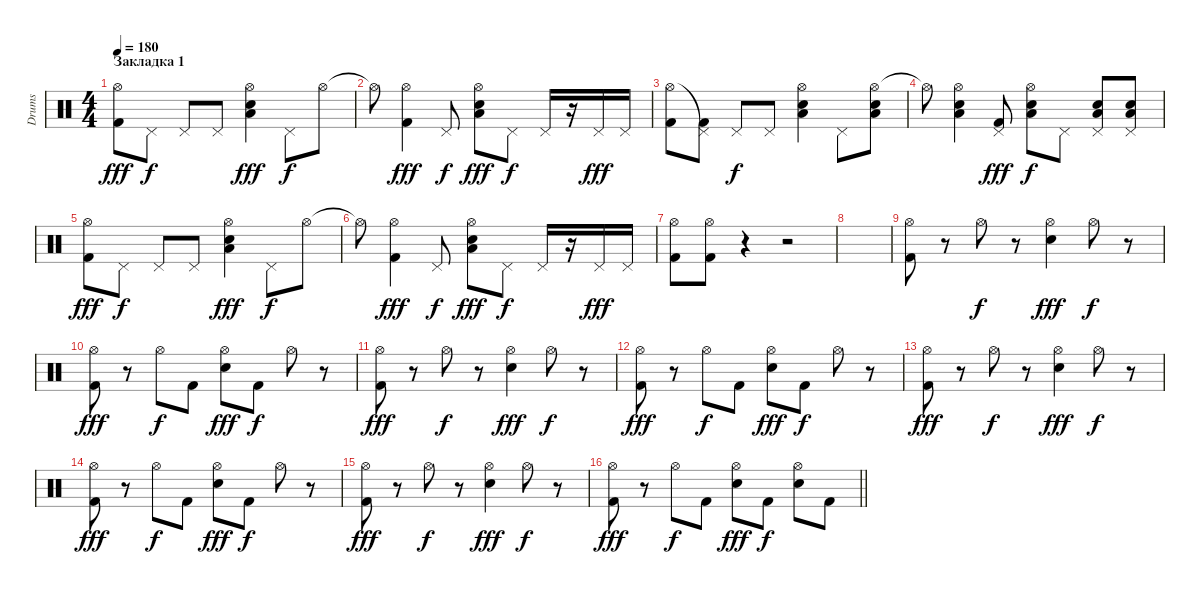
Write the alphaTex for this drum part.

\track ("Drums" "Drums") {instrument percussion}
\staff {score}
\articulation defaults
\ts (4 4)
\section ("" "Закладка 1")
\tempo 180
\clef neutral
\ks c
("Hi-Hat (open)" "Kick (hit) 2").8{dy fff} "Pedal Hi-Hat (hit)".8{dy f} "Pedal Hi-Hat (hit)".8 "Pedal Hi-Hat (hit)".8 ("Hi-Hat (open)" "Electric Snare (hit)" "Low Tom (hit)").4{dy fff} "Pedal Hi-Hat (hit)".8{dy f} "Hi-Hat (open)".8 |
"Hi-Hat (open)"{t}.8 ("Hi-Hat (open)" "Kick (hit) 2").4{dy fff} "Pedal Hi-Hat (hit)".8{dy f} ("Hi-Hat (open)" "Electric Snare (hit)" "Low Tom (hit)").8{dy fff} "Pedal Hi-Hat (hit)".8{dy f} "Pedal Hi-Hat (hit)".16 r.16 "Pedal Hi-Hat (hit)".16{dy fff} "Pedal Hi-Hat (hit)".16 |
("Hi-Hat (open)" "Kick (hit) 2").8 ("Pedal Hi-Hat (hit)"{t} "Kick (hit) 2").8 "Pedal Hi-Hat (hit)".8{dy f} "Pedal Hi-Hat (hit)".8 ("Hi-Hat (open)" "Electric Snare (hit)" "Low Tom (hit)").4 "Pedal Hi-Hat (hit)".8 ("Hi-Hat (open)" "Electric Snare (hit)" "Low Tom (hit)").8 |
"Hi-Hat (open)"{t}.8 ("Hi-Hat (open)" "Electric Snare (hit)" "Low Tom (hit)").4 ("Pedal Hi-Hat (hit)" "Kick (hit) 2").8{dy fff} ("Hi-Hat (open)" "Electric Snare (hit)" "Low Tom (hit)").8{dy f} "Pedal Hi-Hat (hit)".8 ("Pedal Hi-Hat (hit)" "Electric Snare (hit)" "Low Tom (hit)").8 ("Pedal Hi-Hat (hit)" "Electric Snare (hit)" "Low Tom (hit)").8 |
("Hi-Hat (open)" "Kick (hit) 2").8{dy fff} "Pedal Hi-Hat (hit)".8{dy f} "Pedal Hi-Hat (hit)".8 "Pedal Hi-Hat (hit)".8 ("Hi-Hat (open)" "Electric Snare (hit)" "Low Tom (hit)").4{dy fff} "Pedal Hi-Hat (hit)".8{dy f} "Hi-Hat (open)".8 |
"Hi-Hat (open)"{t}.8 ("Hi-Hat (open)" "Kick (hit) 2").4{dy fff} "Pedal Hi-Hat (hit)".8{dy f} ("Hi-Hat (open)" "Electric Snare (hit)" "Low Tom (hit)").8{dy fff} "Pedal Hi-Hat (hit)".8{dy f} "Pedal Hi-Hat (hit)".16 r.16 "Pedal Hi-Hat (hit)".16{dy fff} "Pedal Hi-Hat (hit)".16 |
("Hi-Hat (open)" "Kick (hit) 2").8 ("Hi-Hat (open)" "Kick (hit) 2").8 r.4 r.2 |
|
("Hi-Hat (open)" "Kick (hit) 2").8 r.8 "Hi-Hat (open)".8{dy f} r.8 ("Hi-Hat (open)" "Electric Snare (hit)").4{dy fff} "Hi-Hat (open)".8{dy f} r.8 |
("Hi-Hat (open)" "Kick (hit) 2").8{dy fff} r.8 "Hi-Hat (open)".8{dy f} "Kick (hit) 2".8 ("Hi-Hat (open)" "Electric Snare (hit)").8{dy fff} "Kick (hit) 2".8{dy f} "Hi-Hat (open)".8 r.8 |
("Hi-Hat (open)" "Kick (hit) 2").8{dy fff} r.8 "Hi-Hat (open)".8{dy f} r.8 ("Hi-Hat (open)" "Electric Snare (hit)").4{dy fff} "Hi-Hat (open)".8{dy f} r.8 |
("Hi-Hat (open)" "Kick (hit) 2").8{dy fff} r.8 "Hi-Hat (open)".8{dy f} "Kick (hit) 2".8 ("Hi-Hat (open)" "Electric Snare (hit)").8{dy fff} "Kick (hit) 2".8{dy f} "Hi-Hat (open)".8 r.8 |
("Hi-Hat (open)" "Kick (hit) 2").8{dy fff} r.8 "Hi-Hat (open)".8{dy f} r.8 ("Hi-Hat (open)" "Electric Snare (hit)").4{dy fff} "Hi-Hat (open)".8{dy f} r.8 |
("Hi-Hat (open)" "Kick (hit) 2").8{dy fff} r.8 "Hi-Hat (open)".8{dy f} "Kick (hit) 2".8 ("Hi-Hat (open)" "Electric Snare (hit)").8{dy fff} "Kick (hit) 2".8{dy f} "Hi-Hat (open)".8 r.8 |
("Hi-Hat (open)" "Kick (hit) 2").8{dy fff} r.8 "Hi-Hat (open)".8{dy f} r.8 ("Hi-Hat (open)" "Electric Snare (hit)").4{dy fff} "Hi-Hat (open)".8{dy f} r.8 |
\barLineRight lightlight
("Hi-Hat (open)" "Kick (hit) 2").8{dy fff} r.8 "Hi-Hat (open)".8{dy f} "Kick (hit) 2".8 ("Hi-Hat (open)" "Electric Snare (hit)").8{dy fff} "Kick (hit) 2".8{dy f} ("Hi-Hat (open)" "Electric Snare (hit)").8 "Kick (hit) 2".8
